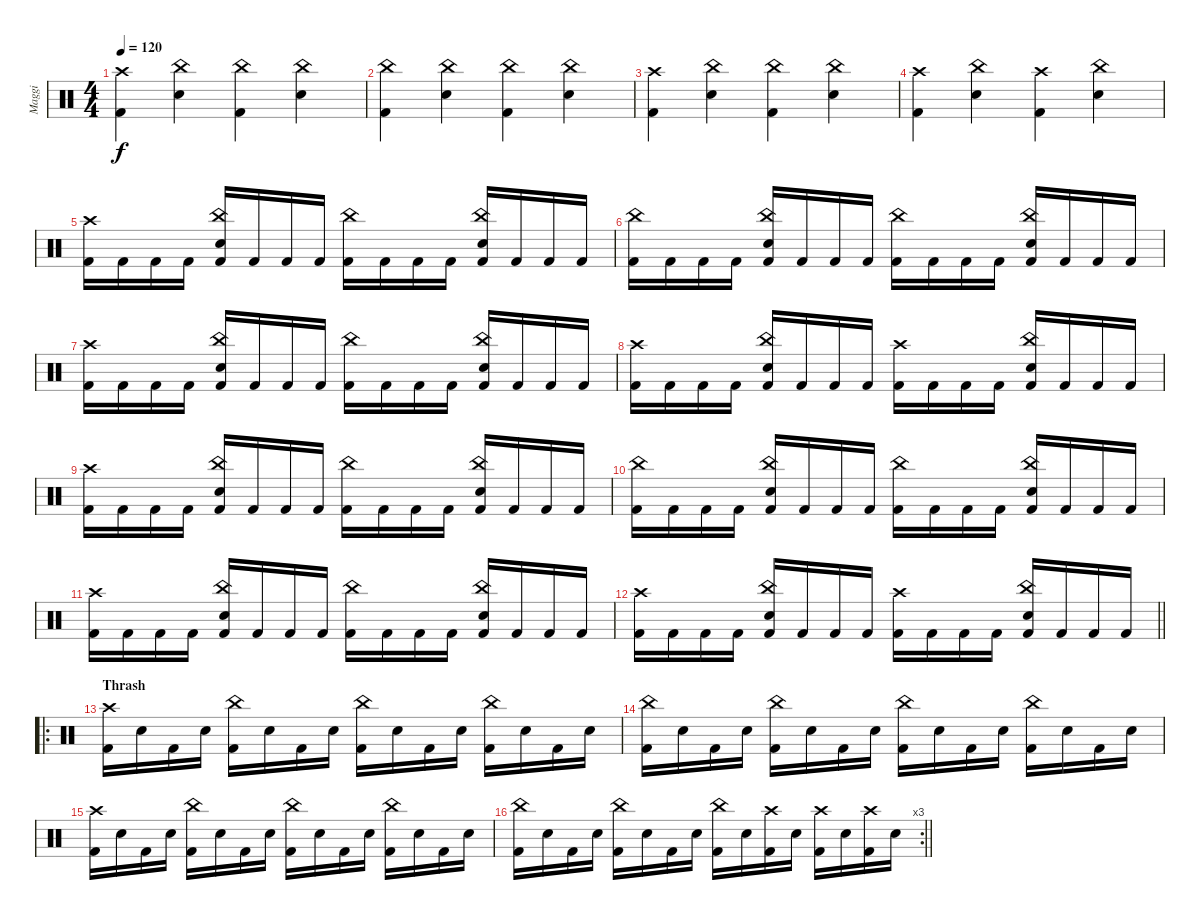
\track ("Maggi" "Maggi") {instrument percussion}
\staff {score}
\articulation defaults
\ts (4 4)
\tempo 120
\clef neutral
\ks c
("Crash high (hit)" "Kick (hit) 2").4{dy f} ("China (hit)" "Snare (hit) 2").4 ("China (hit)" "Kick (hit) 2").4 ("China (hit)" "Snare (hit) 2").4 |
("China (hit)" "Kick (hit) 2").4 ("China (hit)" "Snare (hit) 2").4 ("China (hit)" "Kick (hit) 2").4 ("China (hit)" "Snare (hit) 2").4 |
("Crash high (hit)" "Kick (hit) 2").4 ("China (hit)" "Snare (hit) 2").4 ("China (hit)" "Kick (hit) 2").4 ("China (hit)" "Snare (hit) 2").4 |
("Crash high (hit)" "Kick (hit) 2").4 ("China (hit)" "Snare (hit) 2").4 ("Crash high (hit)" "Kick (hit) 2").4 ("China (hit)" "Snare (hit) 2").4 |
("Crash high (hit)" "Kick (hit) 2").16 "Kick (hit) 2".16 "Kick (hit) 2".16 "Kick (hit) 2".16 ("China (hit)" "Snare (hit) 2" "Kick (hit) 2").16 "Kick (hit) 2".16 "Kick (hit) 2".16 "Kick (hit) 2".16 ("China (hit)" "Kick (hit) 2").16 "Kick (hit) 2".16 "Kick (hit) 2".16 "Kick (hit) 2".16 ("China (hit)" "Snare (hit) 2" "Kick (hit) 2").16 "Kick (hit) 2".16 "Kick (hit) 2".16 "Kick (hit) 2".16 |
("China (hit)" "Kick (hit) 2").16 "Kick (hit) 2".16 "Kick (hit) 2".16 "Kick (hit) 2".16 ("China (hit)" "Snare (hit) 2" "Kick (hit) 2").16 "Kick (hit) 2".16 "Kick (hit) 2".16 "Kick (hit) 2".16 ("China (hit)" "Kick (hit) 2").16 "Kick (hit) 2".16 "Kick (hit) 2".16 "Kick (hit) 2".16 ("China (hit)" "Snare (hit) 2" "Kick (hit) 2").16 "Kick (hit) 2".16 "Kick (hit) 2".16 "Kick (hit) 2".16 |
("Crash high (hit)" "Kick (hit) 2").16 "Kick (hit) 2".16 "Kick (hit) 2".16 "Kick (hit) 2".16 ("China (hit)" "Snare (hit) 2" "Kick (hit) 2").16 "Kick (hit) 2".16 "Kick (hit) 2".16 "Kick (hit) 2".16 ("China (hit)" "Kick (hit) 2").16 "Kick (hit) 2".16 "Kick (hit) 2".16 "Kick (hit) 2".16 ("China (hit)" "Snare (hit) 2" "Kick (hit) 2").16 "Kick (hit) 2".16 "Kick (hit) 2".16 "Kick (hit) 2".16 |
("Crash high (hit)" "Kick (hit) 2").16 "Kick (hit) 2".16 "Kick (hit) 2".16 "Kick (hit) 2".16 ("China (hit)" "Snare (hit) 2" "Kick (hit) 2").16 "Kick (hit) 2".16 "Kick (hit) 2".16 "Kick (hit) 2".16 ("Crash high (hit)" "Kick (hit) 2").16 "Kick (hit) 2".16 "Kick (hit) 2".16 "Kick (hit) 2".16 ("China (hit)" "Snare (hit) 2" "Kick (hit) 2").16 "Kick (hit) 2".16 "Kick (hit) 2".16 "Kick (hit) 2".16 |
("Crash high (hit)" "Kick (hit) 2").16 "Kick (hit) 2".16 "Kick (hit) 2".16 "Kick (hit) 2".16 ("China (hit)" "Snare (hit) 2" "Kick (hit) 2").16 "Kick (hit) 2".16 "Kick (hit) 2".16 "Kick (hit) 2".16 ("China (hit)" "Kick (hit) 2").16 "Kick (hit) 2".16 "Kick (hit) 2".16 "Kick (hit) 2".16 ("China (hit)" "Snare (hit) 2" "Kick (hit) 2").16 "Kick (hit) 2".16 "Kick (hit) 2".16 "Kick (hit) 2".16 |
("China (hit)" "Kick (hit) 2").16 "Kick (hit) 2".16 "Kick (hit) 2".16 "Kick (hit) 2".16 ("China (hit)" "Snare (hit) 2" "Kick (hit) 2").16 "Kick (hit) 2".16 "Kick (hit) 2".16 "Kick (hit) 2".16 ("China (hit)" "Kick (hit) 2").16 "Kick (hit) 2".16 "Kick (hit) 2".16 "Kick (hit) 2".16 ("China (hit)" "Snare (hit) 2" "Kick (hit) 2").16 "Kick (hit) 2".16 "Kick (hit) 2".16 "Kick (hit) 2".16 |
("Crash high (hit)" "Kick (hit) 2").16 "Kick (hit) 2".16 "Kick (hit) 2".16 "Kick (hit) 2".16 ("China (hit)" "Snare (hit) 2" "Kick (hit) 2").16 "Kick (hit) 2".16 "Kick (hit) 2".16 "Kick (hit) 2".16 ("China (hit)" "Kick (hit) 2").16 "Kick (hit) 2".16 "Kick (hit) 2".16 "Kick (hit) 2".16 ("China (hit)" "Snare (hit) 2" "Kick (hit) 2").16 "Kick (hit) 2".16 "Kick (hit) 2".16 "Kick (hit) 2".16 |
\barLineRight lightlight
("Crash high (hit)" "Kick (hit) 2").16 "Kick (hit) 2".16 "Kick (hit) 2".16 "Kick (hit) 2".16 ("China (hit)" "Snare (hit) 2" "Kick (hit) 2").16 "Kick (hit) 2".16 "Kick (hit) 2".16 "Kick (hit) 2".16 ("Crash high (hit)" "Kick (hit) 2").16 "Kick (hit) 2".16 "Kick (hit) 2".16 "Kick (hit) 2".16 ("China (hit)" "Snare (hit) 2" "Kick (hit) 2").16 "Kick (hit) 2".16 "Kick (hit) 2".16 "Kick (hit) 2".16 |
\ro
\section ("" "Thrash")
("Crash high (hit)" "Kick (hit) 2").16 "Snare (hit) 2".16 "Kick (hit) 2".16 "Snare (hit) 2".16 ("China (hit)" "Kick (hit) 2").16 "Snare (hit) 2".16 "Kick (hit) 2".16 "Snare (hit) 2".16 ("China (hit)" "Kick (hit) 2").16 "Snare (hit) 2".16 "Kick (hit) 2".16 "Snare (hit) 2".16 ("China (hit)" "Kick (hit) 2").16 "Snare (hit) 2".16 "Kick (hit) 2".16 "Snare (hit) 2".16 |
("China (hit)" "Kick (hit) 2").16 "Snare (hit) 2".16 "Kick (hit) 2".16 "Snare (hit) 2".16 ("China (hit)" "Kick (hit) 2").16 "Snare (hit) 2".16 "Kick (hit) 2".16 "Snare (hit) 2".16 ("China (hit)" "Kick (hit) 2").16 "Snare (hit) 2".16 "Kick (hit) 2".16 "Snare (hit) 2".16 ("China (hit)" "Kick (hit) 2").16 "Snare (hit) 2".16 "Kick (hit) 2".16 "Snare (hit) 2".16 |
("Crash high (hit)" "Kick (hit) 2").16 "Snare (hit) 2".16 "Kick (hit) 2".16 "Snare (hit) 2".16 ("China (hit)" "Kick (hit) 2").16 "Snare (hit) 2".16 "Kick (hit) 2".16 "Snare (hit) 2".16 ("China (hit)" "Kick (hit) 2").16 "Snare (hit) 2".16 "Kick (hit) 2".16 "Snare (hit) 2".16 ("China (hit)" "Kick (hit) 2").16 "Snare (hit) 2".16 "Kick (hit) 2".16 "Snare (hit) 2".16 |
\rc 3
\barLineRight lightlight
("China (hit)" "Kick (hit) 2").16 "Snare (hit) 2".16 "Kick (hit) 2".16 "Snare (hit) 2".16 ("China (hit)" "Kick (hit) 2").16 "Snare (hit) 2".16 "Kick (hit) 2".16 "Snare (hit) 2".16 ("China (hit)" "Kick (hit) 2").16 "Snare (hit) 2".16 ("Crash high (hit)" "Kick (hit) 2").16 "Snare (hit) 2".16 ("Crash high (hit)" "Kick (hit) 2").16 "Snare (hit) 2".16 ("Crash high (hit)" "Kick (hit) 2").16 "Snare (hit) 2".16
